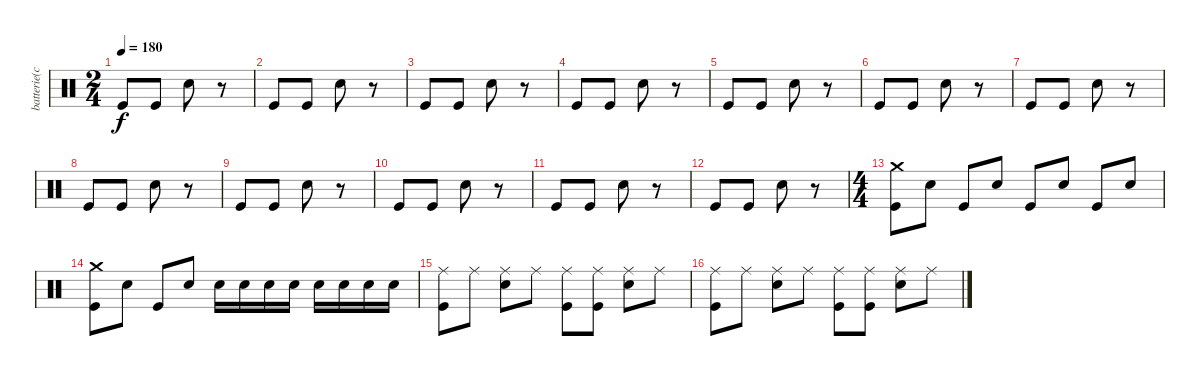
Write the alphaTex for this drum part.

\track ("batterie(chip)" "batterie(c") {instrument percussion}
\staff {score}
\articulation defaults
\ts (2 4)
\tempo 180
\clef neutral
\ks c "Kick (hit)".8{dy f} "Kick (hit)".8 "Snare (hit) 2".8
r.8 |
"Kick (hit)".8 "Kick (hit)".8 "Snare (hit) 2".8 r.8 |
"Kick (hit)".8 "Kick (hit)".8 "Snare (hit) 2".8 r.8 |
"Kick (hit)".8 "Kick (hit)".8 "Snare (hit) 2".8 r.8 |
"Kick (hit)".8 "Kick (hit)".8 "Snare (hit) 2".8 r.8 |
"Kick (hit)".8 "Kick (hit)".8 "Snare (hit) 2".8 r.8 |
"Kick (hit)".8 "Kick (hit)".8 "Snare (hit) 2".8 r.8 |
"Kick (hit)".8 "Kick (hit)".8 "Snare (hit) 2".8 r.8 |
"Kick (hit)".8 "Kick (hit)".8 "Snare (hit) 2".8 r.8 |
"Kick (hit)".8 "Kick (hit)".8 "Snare (hit) 2".8 r.8 |
"Kick (hit)".8 "Kick (hit)".8 "Snare (hit) 2".8 r.8 |
"Kick (hit)".8 "Kick (hit)".8 "Snare (hit) 2".8 r.8 |
\ts (4 4)
("Crash medium (hit)" "Kick (hit)").8 "Snare (hit) 2".8 "Kick (hit)".8 "Snare (hit) 2".8 "Kick (hit)".8 "Snare (hit) 2".8 "Kick (hit)".8 "Snare (hit) 2".8 |
("Crash medium (hit)" "Kick (hit)").8 "Snare (hit) 2".8 "Kick (hit)".8 "Snare (hit) 2".8 "Snare (hit) 2".16 "Snare (hit) 2".16 "Snare (hit) 2".16 "Snare (hit) 2".16 "Snare (hit) 2".16 "Snare (hit) 2".16 "Snare (hit) 2".16 "Snare (hit) 2".16 |
("Ride (middle)" "Kick (hit)").8 "Ride (middle)".8 ("Ride (middle)" "Snare (hit) 2").8 "Ride (middle)".8 ("Ride (middle)" "Kick (hit)").8 ("Ride (middle)" "Kick (hit)").8 ("Ride (middle)" "Snare (hit) 2").8 "Ride (middle)".8 |
("Ride (middle)" "Kick (hit)").8 "Ride (middle)".8 ("Ride (middle)" "Snare (hit) 2").8 "Ride (middle)".8 ("Ride (middle)" "Kick (hit)").8 ("Ride (middle)" "Kick (hit)").8 ("Ride (middle)" "Snare (hit) 2").8 "Ride (middle)".8
